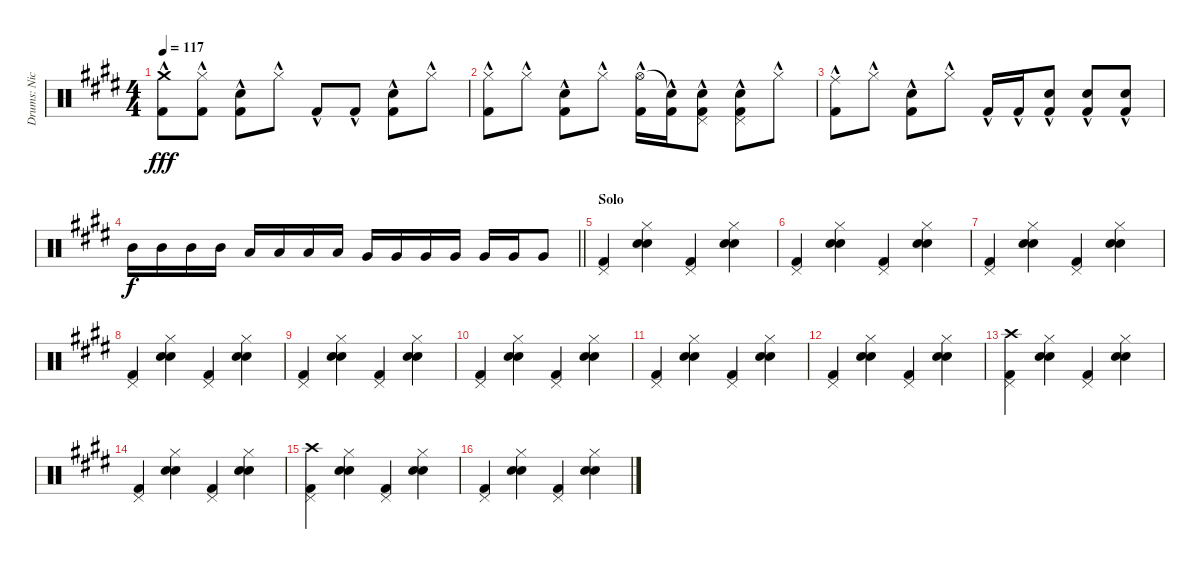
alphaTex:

\track ("Drums: Nick" "Drums: Nic") {instrument percussion}
\staff {score}
\articulation defaults
\ts (4 4)
\tempo 117
\clef neutral
\ks e
("Crash medium (hit)"{hac} "Kick (hit) 2"{hac}).8{dy fff} ("Hi-Hat (closed)"{hac} "Kick (hit) 2").8 ("Snare (hit) 2"{hac} "Kick (hit) 2"{hac}).8 "Hi-Hat (closed)"{hac}.8 "Kick (hit) 2"{hac}.8 "Kick (hit) 2"{hac}.8 ("Snare (hit) 2"{hac} "Kick (hit) 2"{hac}).8 "Hi-Hat (closed)"{hac}.8 |
("Hi-Hat (closed)" "Kick (hit) 2"{hac}).8 "Hi-Hat (closed)"{hac}.8 ("Snare (hit) 2"{hac} "Kick (hit) 2"{hac}).8 "Hi-Hat (closed)"{hac}.8 ("Hi-Hat (open)" "Kick (hit) 2"{hac}).16 ("Snare (hit)"{t} "Kick (hit) 2"{hac}).16 ("Pedal Hi-Hat (hit)" "Snare (hit) 2"{hac} "Kick (hit) 2"{hac}).8 ("Pedal Hi-Hat (hit)" "Snare (hit) 2"{hac} "Kick (hit) 2"{hac}).8 "Hi-Hat (closed)"{hac}.8 |
("Ride (middle)" "Kick (hit) 2"{hac}).8 "Hi-Hat (closed)"{hac}.8 ("Snare (hit) 2"{hac} "Kick (hit) 2"{hac}).8 "Hi-Hat (closed)"{hac}.8 "Kick (hit) 2"{hac}.16 "Kick (hit) 2"{hac}.16 ("Snare (hit) 2"{hac} "Kick (hit) 2"{hac}).8 ("Snare (hit) 2"{hac} "Kick (hit) 2"{hac}).8 ("Snare (hit) 2"{hac} "Kick (hit) 2"{hac}).8 |
\barLineRight lightlight "Mid Tom (hit)".16{dy f} "Mid Tom (hit)".16 "Mid Tom (hit)".16 "Mid Tom (hit)".16 "Low Tom (hit)".16 "Low Tom (hit)".16 "Low Tom (hit)".16 "Low Tom (hit)".16 "Very Low Tom (hit)".16 "Very Low Tom (hit)".16 "Very Low Tom (hit)".16 "Very Low Tom (hit)".16 "Very Low Tom (hit)".16 "Very Low Tom (hit)".16 "Very Low Tom (hit)".8
|
\section ("" "Solo")
("Pedal Hi-Hat (hit)" "Kick (hit) 2").4 ("Hi-Hat (closed)" "Electric Snare (hit)" "Hand Clap (hit)").4 ("Pedal Hi-Hat (hit)" "Kick (hit) 2").4 ("Hi-Hat (closed)" "Electric Snare (hit)" "Hand Clap (hit)").4 |
("Pedal Hi-Hat (hit)" "Kick (hit) 2").4 ("Hi-Hat (closed)" "Electric Snare (hit)" "Hand Clap (hit)").4 ("Pedal Hi-Hat (hit)" "Kick (hit) 2").4 ("Hi-Hat (closed)" "Electric Snare (hit)" "Hand Clap (hit)").4 |
("Pedal Hi-Hat (hit)" "Kick (hit) 2").4 ("Hi-Hat (closed)" "Electric Snare (hit)" "Hand Clap (hit)").4 ("Pedal Hi-Hat (hit)" "Kick (hit) 2").4 ("Hi-Hat (closed)" "Electric Snare (hit)" "Hand Clap (hit)").4 |
("Pedal Hi-Hat (hit)" "Kick (hit) 2").4 ("Hi-Hat (closed)" "Electric Snare (hit)" "Hand Clap (hit)").4 ("Pedal Hi-Hat (hit)" "Kick (hit) 2").4 ("Hi-Hat (closed)" "Electric Snare (hit)" "Hand Clap (hit)").4 |
("Pedal Hi-Hat (hit)" "Kick (hit) 2").4 ("Hi-Hat (closed)" "Electric Snare (hit)" "Hand Clap (hit)").4 ("Pedal Hi-Hat (hit)" "Kick (hit) 2").4 ("Hi-Hat (closed)" "Electric Snare (hit)" "Hand Clap (hit)").4 |
("Pedal Hi-Hat (hit)" "Kick (hit) 2").4 ("Hi-Hat (closed)" "Electric Snare (hit)" "Hand Clap (hit)").4 ("Pedal Hi-Hat (hit)" "Kick (hit) 2").4 ("Hi-Hat (closed)" "Electric Snare (hit)" "Hand Clap (hit)").4 |
("Pedal Hi-Hat (hit)" "Kick (hit) 2").4 ("Hi-Hat (closed)" "Electric Snare (hit)" "Hand Clap (hit)").4 ("Pedal Hi-Hat (hit)" "Kick (hit) 2").4 ("Hi-Hat (closed)" "Electric Snare (hit)" "Hand Clap (hit)").4 |
("Pedal Hi-Hat (hit)" "Kick (hit) 2").4 ("Hi-Hat (closed)" "Electric Snare (hit)" "Hand Clap (hit)").4 ("Pedal Hi-Hat (hit)" "Kick (hit) 2").4 ("Hi-Hat (closed)" "Electric Snare (hit)" "Hand Clap (hit)").4 |
("Crash high (hit)" "Pedal Hi-Hat (hit)" "Kick (hit) 2").4 ("Hi-Hat (closed)" "Electric Snare (hit)" "Hand Clap (hit)").4 ("Pedal Hi-Hat (hit)" "Kick (hit) 2").4 ("Hi-Hat (closed)" "Electric Snare (hit)" "Hand Clap (hit)").4 |
("Pedal Hi-Hat (hit)" "Kick (hit) 2").4 ("Hi-Hat (closed)" "Electric Snare (hit)" "Hand Clap (hit)").4 ("Pedal Hi-Hat (hit)" "Kick (hit) 2").4 ("Hi-Hat (closed)" "Electric Snare (hit)" "Hand Clap (hit)").4 |
("Crash high (hit)" "Pedal Hi-Hat (hit)" "Kick (hit) 2").4 ("Hi-Hat (closed)" "Electric Snare (hit)" "Hand Clap (hit)").4 ("Pedal Hi-Hat (hit)" "Kick (hit) 2").4 ("Hi-Hat (closed)" "Electric Snare (hit)" "Hand Clap (hit)").4 |
("Pedal Hi-Hat (hit)" "Kick (hit) 2").4 ("Hi-Hat (closed)" "Electric Snare (hit)" "Hand Clap (hit)").4 ("Pedal Hi-Hat (hit)" "Kick (hit) 2").4 ("Hi-Hat (closed)" "Electric Snare (hit)" "Hand Clap (hit)").4
